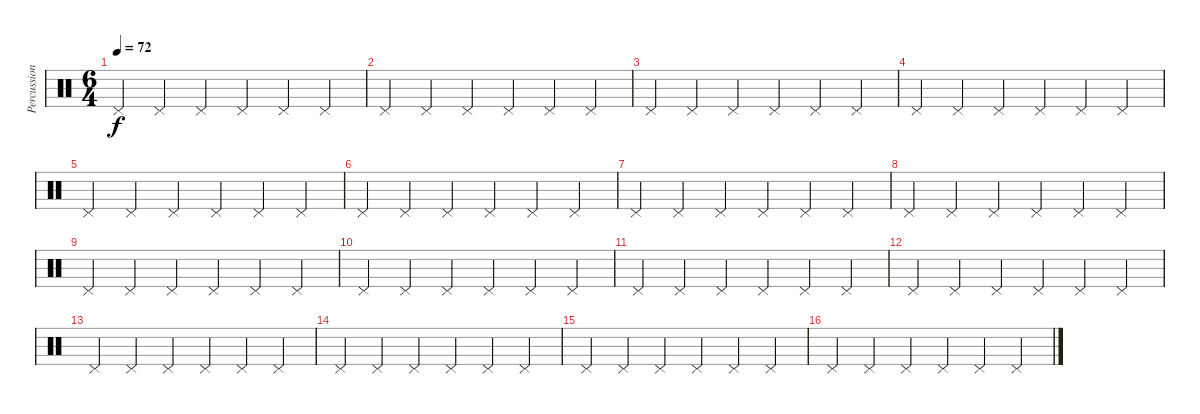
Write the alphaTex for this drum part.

\track ("Percussion" "Percussion") {instrument percussion}
\staff {score}
\articulation defaults
\ts (6 4)
\tempo 72
\clef neutral
\ks c "Pedal Hi-Hat (hit)".4{dy f} "Pedal Hi-Hat (hit)".4 "Pedal Hi-Hat (hit)".4 "Pedal Hi-Hat (hit)".4 "Pedal Hi-Hat (hit)".4 "Pedal Hi-Hat (hit)".4
|
"Pedal Hi-Hat (hit)".4 "Pedal Hi-Hat (hit)".4 "Pedal Hi-Hat (hit)".4 "Pedal Hi-Hat (hit)".4 "Pedal Hi-Hat (hit)".4 "Pedal Hi-Hat (hit)".4 |
"Pedal Hi-Hat (hit)".4 "Pedal Hi-Hat (hit)".4 "Pedal Hi-Hat (hit)".4 "Pedal Hi-Hat (hit)".4 "Pedal Hi-Hat (hit)".4 "Pedal Hi-Hat (hit)".4 |
"Pedal Hi-Hat (hit)".4 "Pedal Hi-Hat (hit)".4 "Pedal Hi-Hat (hit)".4 "Pedal Hi-Hat (hit)".4 "Pedal Hi-Hat (hit)".4 "Pedal Hi-Hat (hit)".4 |
"Pedal Hi-Hat (hit)".4 "Pedal Hi-Hat (hit)".4 "Pedal Hi-Hat (hit)".4 "Pedal Hi-Hat (hit)".4 "Pedal Hi-Hat (hit)".4 "Pedal Hi-Hat (hit)".4 |
"Pedal Hi-Hat (hit)".4 "Pedal Hi-Hat (hit)".4 "Pedal Hi-Hat (hit)".4 "Pedal Hi-Hat (hit)".4 "Pedal Hi-Hat (hit)".4 "Pedal Hi-Hat (hit)".4 |
"Pedal Hi-Hat (hit)".4 "Pedal Hi-Hat (hit)".4 "Pedal Hi-Hat (hit)".4 "Pedal Hi-Hat (hit)".4 "Pedal Hi-Hat (hit)".4 "Pedal Hi-Hat (hit)".4 |
"Pedal Hi-Hat (hit)".4 "Pedal Hi-Hat (hit)".4 "Pedal Hi-Hat (hit)".4 "Pedal Hi-Hat (hit)".4 "Pedal Hi-Hat (hit)".4 "Pedal Hi-Hat (hit)".4 |
"Pedal Hi-Hat (hit)".4 "Pedal Hi-Hat (hit)".4 "Pedal Hi-Hat (hit)".4 "Pedal Hi-Hat (hit)".4 "Pedal Hi-Hat (hit)".4 "Pedal Hi-Hat (hit)".4 |
"Pedal Hi-Hat (hit)".4 "Pedal Hi-Hat (hit)".4 "Pedal Hi-Hat (hit)".4 "Pedal Hi-Hat (hit)".4 "Pedal Hi-Hat (hit)".4 "Pedal Hi-Hat (hit)".4 |
"Pedal Hi-Hat (hit)".4 "Pedal Hi-Hat (hit)".4 "Pedal Hi-Hat (hit)".4 "Pedal Hi-Hat (hit)".4 "Pedal Hi-Hat (hit)".4 "Pedal Hi-Hat (hit)".4 |
"Pedal Hi-Hat (hit)".4 "Pedal Hi-Hat (hit)".4 "Pedal Hi-Hat (hit)".4 "Pedal Hi-Hat (hit)".4 "Pedal Hi-Hat (hit)".4 "Pedal Hi-Hat (hit)".4 |
"Pedal Hi-Hat (hit)".4 "Pedal Hi-Hat (hit)".4 "Pedal Hi-Hat (hit)".4 "Pedal Hi-Hat (hit)".4 "Pedal Hi-Hat (hit)".4 "Pedal Hi-Hat (hit)".4 |
"Pedal Hi-Hat (hit)".4 "Pedal Hi-Hat (hit)".4 "Pedal Hi-Hat (hit)".4 "Pedal Hi-Hat (hit)".4 "Pedal Hi-Hat (hit)".4 "Pedal Hi-Hat (hit)".4 |
"Pedal Hi-Hat (hit)".4 "Pedal Hi-Hat (hit)".4 "Pedal Hi-Hat (hit)".4 "Pedal Hi-Hat (hit)".4 "Pedal Hi-Hat (hit)".4 "Pedal Hi-Hat (hit)".4 |
"Pedal Hi-Hat (hit)".4 "Pedal Hi-Hat (hit)".4 "Pedal Hi-Hat (hit)".4 "Pedal Hi-Hat (hit)".4 "Pedal Hi-Hat (hit)".4 "Pedal Hi-Hat (hit)".4
